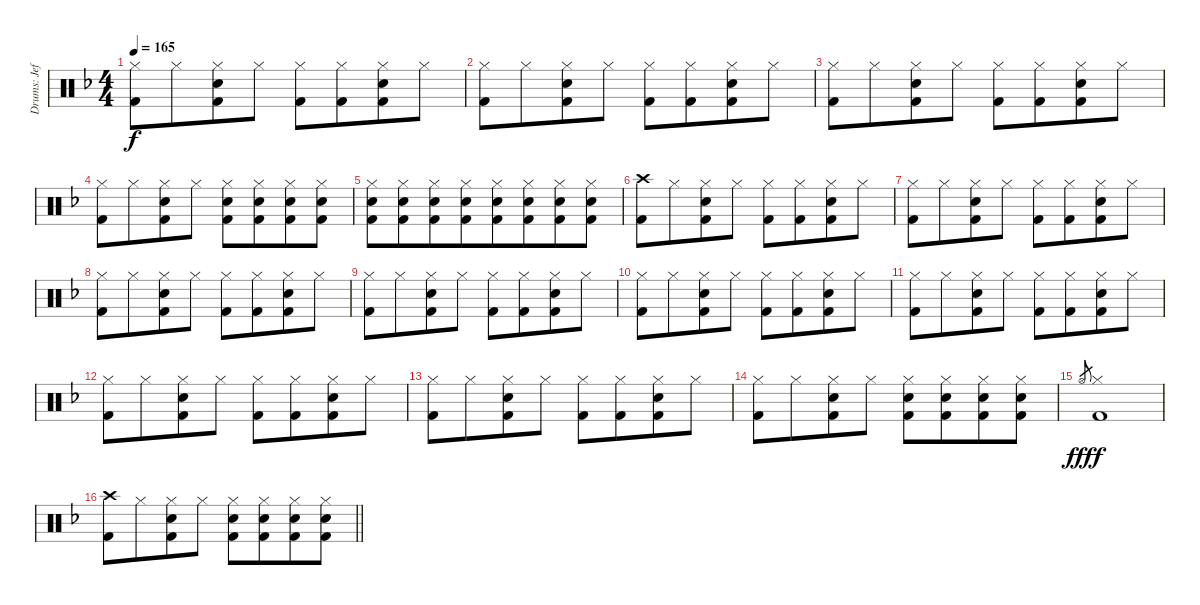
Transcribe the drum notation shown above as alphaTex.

\track ("Drums: Jeff" "Drums: Jef") {instrument percussion}
\staff {score}
\articulation defaults
\ts (4 4)
\tempo 165
\clef neutral
\ks f
("Hi-Hat (closed)" "Kick (hit) 2").8{dy f} "Hi-Hat (closed)".8{beam merge} ("Hi-Hat (closed)" "Snare (hit) 2" "Kick (hit) 2").8 "Hi-Hat (closed)".8{beam split} ("Hi-Hat (closed)" "Kick (hit) 2").8 ("Hi-Hat (closed)" "Kick (hit) 2").8{beam merge} ("Hi-Hat (closed)" "Snare (hit) 2" "Kick (hit) 2").8 "Hi-Hat (closed)".8 |
("Hi-Hat (closed)" "Kick (hit) 2").8 "Hi-Hat (closed)".8{beam merge} ("Hi-Hat (closed)" "Snare (hit) 2" "Kick (hit) 2").8 "Hi-Hat (closed)".8{beam split} ("Hi-Hat (closed)" "Kick (hit) 2").8 ("Hi-Hat (closed)" "Kick (hit) 2").8{beam merge} ("Hi-Hat (closed)" "Snare (hit) 2" "Kick (hit) 2").8 "Hi-Hat (closed)".8 |
("Hi-Hat (closed)" "Kick (hit) 2").8 "Hi-Hat (closed)".8{beam merge} ("Hi-Hat (closed)" "Snare (hit) 2" "Kick (hit) 2").8 "Hi-Hat (closed)".8{beam split} ("Hi-Hat (closed)" "Kick (hit) 2").8 ("Hi-Hat (closed)" "Kick (hit) 2").8{beam merge} ("Hi-Hat (closed)" "Snare (hit) 2" "Kick (hit) 2").8 "Hi-Hat (closed)".8 |
("Hi-Hat (closed)" "Kick (hit) 2").8 "Hi-Hat (closed)".8{beam merge} ("Hi-Hat (closed)" "Snare (hit) 2" "Kick (hit) 2").8 "Hi-Hat (closed)".8{beam split} ("Hi-Hat (closed)" "Snare (hit) 2" "Kick (hit) 2").8{beam merge} ("Hi-Hat (closed)" "Snare (hit) 2" "Kick (hit) 2").8{beam merge} ("Hi-Hat (closed)" "Snare (hit) 2" "Kick (hit) 2").8{beam merge} ("Hi-Hat (closed)" "Snare (hit) 2" "Kick (hit) 2").8 |
("Hi-Hat (closed)" "Snare (hit) 2" "Kick (hit) 2").8{beam merge} ("Hi-Hat (closed)" "Snare (hit) 2" "Kick (hit) 2").8{beam merge} ("Hi-Hat (closed)" "Snare (hit) 2" "Kick (hit) 2").8{beam merge} ("Hi-Hat (closed)" "Snare (hit) 2" "Kick (hit) 2").8{beam merge} ("Hi-Hat (closed)" "Snare (hit) 2" "Kick (hit) 2").8{beam merge} ("Hi-Hat (closed)" "Snare (hit) 2" "Kick (hit) 2").8{beam merge} ("Hi-Hat (closed)" "Snare (hit) 2" "Kick (hit) 2").8{beam merge} ("Hi-Hat (closed)" "Snare (hit) 2" "Kick (hit) 2").8 |
("Crash high (hit)" "Kick (hit) 2").8 "Hi-Hat (closed)".8{beam merge} ("Hi-Hat (closed)" "Snare (hit) 2" "Kick (hit) 2").8 "Hi-Hat (closed)".8{beam split} ("Hi-Hat (closed)" "Kick (hit) 2").8 ("Hi-Hat (closed)" "Kick (hit) 2").8{beam merge} ("Hi-Hat (closed)" "Snare (hit) 2" "Kick (hit) 2").8 "Hi-Hat (closed)".8 |
("Hi-Hat (closed)" "Kick (hit) 2").8 "Hi-Hat (closed)".8{beam merge} ("Hi-Hat (closed)" "Snare (hit) 2" "Kick (hit) 2").8 "Hi-Hat (closed)".8{beam split} ("Hi-Hat (closed)" "Kick (hit) 2").8 ("Hi-Hat (closed)" "Kick (hit) 2").8{beam merge} ("Hi-Hat (closed)" "Snare (hit) 2" "Kick (hit) 2").8 "Hi-Hat (closed)".8 |
("Hi-Hat (closed)" "Kick (hit) 2").8 "Hi-Hat (closed)".8{beam merge} ("Hi-Hat (closed)" "Snare (hit) 2" "Kick (hit) 2").8 "Hi-Hat (closed)".8{beam split} ("Hi-Hat (closed)" "Kick (hit) 2").8 ("Hi-Hat (closed)" "Kick (hit) 2").8{beam merge} ("Hi-Hat (closed)" "Snare (hit) 2" "Kick (hit) 2").8 "Hi-Hat (closed)".8 |
("Hi-Hat (closed)" "Kick (hit) 2").8 "Hi-Hat (closed)".8{beam merge} ("Hi-Hat (closed)" "Snare (hit) 2" "Kick (hit) 2").8 "Hi-Hat (closed)".8{beam split} ("Hi-Hat (closed)" "Kick (hit) 2").8 ("Hi-Hat (closed)" "Kick (hit) 2").8{beam merge} ("Hi-Hat (closed)" "Snare (hit) 2" "Kick (hit) 2").8 "Hi-Hat (closed)".8 |
("Hi-Hat (closed)" "Kick (hit) 2").8 "Hi-Hat (closed)".8{beam merge} ("Hi-Hat (closed)" "Snare (hit) 2" "Kick (hit) 2").8 "Hi-Hat (closed)".8{beam split} ("Hi-Hat (closed)" "Kick (hit) 2").8 ("Hi-Hat (closed)" "Kick (hit) 2").8{beam merge} ("Hi-Hat (closed)" "Snare (hit) 2" "Kick (hit) 2").8 "Hi-Hat (closed)".8 |
("Hi-Hat (closed)" "Kick (hit) 2").8 "Hi-Hat (closed)".8{beam merge} ("Hi-Hat (closed)" "Snare (hit) 2" "Kick (hit) 2").8 "Hi-Hat (closed)".8{beam split} ("Hi-Hat (closed)" "Kick (hit) 2").8 ("Hi-Hat (closed)" "Kick (hit) 2").8{beam merge} ("Hi-Hat (closed)" "Snare (hit) 2" "Kick (hit) 2").8 "Hi-Hat (closed)".8 |
("Hi-Hat (closed)" "Kick (hit) 2").8 "Hi-Hat (closed)".8{beam merge} ("Hi-Hat (closed)" "Snare (hit) 2" "Kick (hit) 2").8 "Hi-Hat (closed)".8{beam split} ("Hi-Hat (closed)" "Kick (hit) 2").8 ("Hi-Hat (closed)" "Kick (hit) 2").8{beam merge} ("Hi-Hat (closed)" "Snare (hit) 2" "Kick (hit) 2").8 "Hi-Hat (closed)".8 |
("Hi-Hat (closed)" "Kick (hit) 2").8 "Hi-Hat (closed)".8{beam merge} ("Hi-Hat (closed)" "Snare (hit) 2" "Kick (hit) 2").8 "Hi-Hat (closed)".8{beam split} ("Hi-Hat (closed)" "Kick (hit) 2").8 ("Hi-Hat (closed)" "Kick (hit) 2").8{beam merge} ("Hi-Hat (closed)" "Snare (hit) 2" "Kick (hit) 2").8 "Hi-Hat (closed)".8 |
("Hi-Hat (closed)" "Kick (hit) 2").8 "Hi-Hat (closed)".8{beam merge} ("Hi-Hat (closed)" "Snare (hit) 2" "Kick (hit) 2").8 "Hi-Hat (closed)".8{beam split} ("Hi-Hat (closed)" "Snare (hit) 2" "Kick (hit) 2").8{beam merge} ("Hi-Hat (closed)" "Snare (hit) 2" "Kick (hit) 2").8{beam merge} ("Hi-Hat (closed)" "Snare (hit) 2" "Kick (hit) 2").8{beam merge} ("Hi-Hat (closed)" "Snare (hit) 2" "Kick (hit) 2").8 |
"Hi-Hat (open)".8{gr dy fff} ("Hi-Hat (closed)" "Kick (hit) 2").1{dy f} |
\barLineRight lightlight
("Crash high (hit)" "Kick (hit) 2").8 "Hi-Hat (closed)".8{beam merge} ("Hi-Hat (closed)" "Snare (hit) 2" "Kick (hit) 2").8 "Hi-Hat (closed)".8{beam split} ("Hi-Hat (closed)" "Snare (hit) 2" "Kick (hit) 2").8{beam merge} ("Hi-Hat (closed)" "Snare (hit) 2" "Kick (hit) 2").8{beam merge} ("Hi-Hat (closed)" "Snare (hit) 2" "Kick (hit) 2").8{beam merge} ("Hi-Hat (closed)" "Snare (hit) 2" "Kick (hit) 2").8
